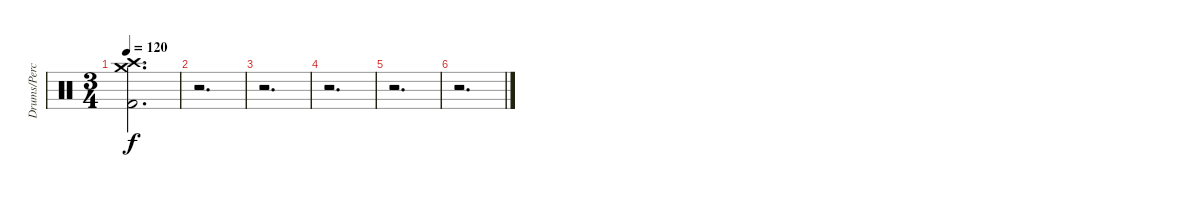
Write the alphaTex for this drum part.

\track ("Drums/Percussion" "Drums/Perc") {instrument percussion}
\staff {score}
\articulation defaults
\ts (3 4)
\tempo 120
\clef neutral
\ks c
("Crash medium (hit)" "Crash high (hit)" "Kick (hit) 2").2{d dy f} |
r.2{d} |
r.2{d} |
r.2{d} |
r.2{d} |
r.2{d}
